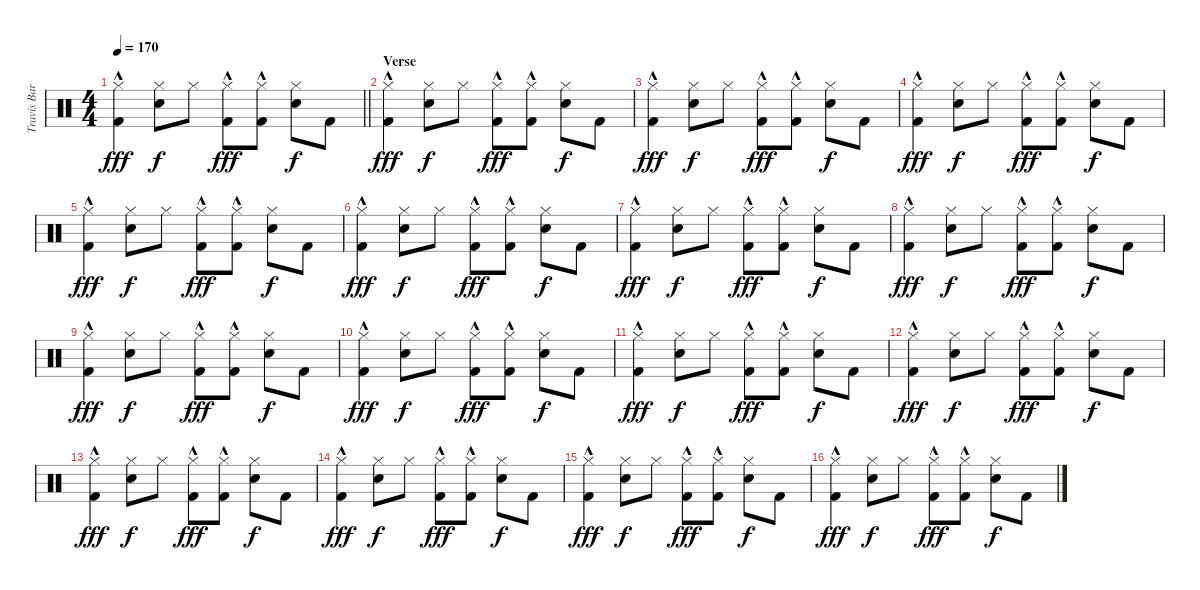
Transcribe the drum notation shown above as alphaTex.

\track ("Travis Barker" "Travis Bar") {instrument percussion}
\staff {score}
\articulation defaults
\ts (4 4)
\tempo 170
\clef neutral
\barLineRight lightlight
\ks c
("Hi-Hat (closed)" "Kick (hit) 2"{hac}).4{dy fff} ("Hi-Hat (closed)" "Snare (hit) 2").8{dy f} "Hi-Hat (closed)".8 ("Hi-Hat (closed)" "Kick (hit) 2"{hac}).8{dy fff} ("Hi-Hat (closed)" "Kick (hit) 2"{hac}).8 ("Hi-Hat (closed)" "Snare (hit) 2").8{dy f} "Kick (hit) 2".8 |
\section ("" "Verse")
("Hi-Hat (closed)" "Kick (hit) 2"{hac}).4{dy fff} ("Hi-Hat (closed)" "Snare (hit) 2").8{dy f} "Hi-Hat (closed)".8 ("Hi-Hat (closed)" "Kick (hit) 2"{hac}).8{dy fff} ("Hi-Hat (closed)" "Kick (hit) 2"{hac}).8 ("Hi-Hat (closed)" "Snare (hit) 2").8{dy f} "Kick (hit) 2".8 |
("Hi-Hat (closed)" "Kick (hit) 2"{hac}).4{dy fff} ("Hi-Hat (closed)" "Snare (hit) 2").8{dy f} "Hi-Hat (closed)".8 ("Hi-Hat (closed)" "Kick (hit) 2"{hac}).8{dy fff} ("Hi-Hat (closed)" "Kick (hit) 2"{hac}).8 ("Hi-Hat (closed)" "Snare (hit) 2").8{dy f} "Kick (hit) 2".8 |
("Hi-Hat (closed)" "Kick (hit) 2"{hac}).4{dy fff} ("Hi-Hat (closed)" "Snare (hit) 2").8{dy f} "Hi-Hat (closed)".8 ("Hi-Hat (closed)" "Kick (hit) 2"{hac}).8{dy fff} ("Hi-Hat (closed)" "Kick (hit) 2"{hac}).8 ("Hi-Hat (closed)" "Snare (hit) 2").8{dy f} "Kick (hit) 2".8 |
("Hi-Hat (closed)" "Kick (hit) 2"{hac}).4{dy fff} ("Hi-Hat (closed)" "Snare (hit) 2").8{dy f} "Hi-Hat (closed)".8 ("Hi-Hat (closed)" "Kick (hit) 2"{hac}).8{dy fff} ("Hi-Hat (closed)" "Kick (hit) 2"{hac}).8 ("Hi-Hat (closed)" "Snare (hit) 2").8{dy f} "Kick (hit) 2".8 |
("Hi-Hat (closed)" "Kick (hit) 2"{hac}).4{dy fff} ("Hi-Hat (closed)" "Snare (hit) 2").8{dy f} "Hi-Hat (closed)".8 ("Hi-Hat (closed)" "Kick (hit) 2"{hac}).8{dy fff} ("Hi-Hat (closed)" "Kick (hit) 2"{hac}).8 ("Hi-Hat (closed)" "Snare (hit) 2").8{dy f} "Kick (hit) 2".8 |
("Hi-Hat (closed)" "Kick (hit) 2"{hac}).4{dy fff} ("Hi-Hat (closed)" "Snare (hit) 2").8{dy f} "Hi-Hat (closed)".8 ("Hi-Hat (closed)" "Kick (hit) 2"{hac}).8{dy fff} ("Hi-Hat (closed)" "Kick (hit) 2"{hac}).8 ("Hi-Hat (closed)" "Snare (hit) 2").8{dy f} "Kick (hit) 2".8 |
("Hi-Hat (closed)" "Kick (hit) 2"{hac}).4{dy fff} ("Hi-Hat (closed)" "Snare (hit) 2").8{dy f} "Hi-Hat (closed)".8 ("Hi-Hat (closed)" "Kick (hit) 2"{hac}).8{dy fff} ("Hi-Hat (closed)" "Kick (hit) 2"{hac}).8 ("Hi-Hat (closed)" "Snare (hit) 2").8{dy f} "Kick (hit) 2".8 |
("Hi-Hat (closed)" "Kick (hit) 2"{hac}).4{dy fff} ("Hi-Hat (closed)" "Snare (hit) 2").8{dy f} "Hi-Hat (closed)".8 ("Hi-Hat (closed)" "Kick (hit) 2"{hac}).8{dy fff} ("Hi-Hat (closed)" "Kick (hit) 2"{hac}).8 ("Hi-Hat (closed)" "Snare (hit) 2").8{dy f} "Kick (hit) 2".8 |
("Hi-Hat (closed)" "Kick (hit) 2"{hac}).4{dy fff} ("Hi-Hat (closed)" "Snare (hit) 2").8{dy f} "Hi-Hat (closed)".8 ("Hi-Hat (closed)" "Kick (hit) 2"{hac}).8{dy fff} ("Hi-Hat (closed)" "Kick (hit) 2"{hac}).8 ("Hi-Hat (closed)" "Snare (hit) 2").8{dy f} "Kick (hit) 2".8 |
("Hi-Hat (closed)" "Kick (hit) 2"{hac}).4{dy fff} ("Hi-Hat (closed)" "Snare (hit) 2").8{dy f} "Hi-Hat (closed)".8 ("Hi-Hat (closed)" "Kick (hit) 2"{hac}).8{dy fff} ("Hi-Hat (closed)" "Kick (hit) 2"{hac}).8 ("Hi-Hat (closed)" "Snare (hit) 2").8{dy f} "Kick (hit) 2".8 |
("Hi-Hat (closed)" "Kick (hit) 2"{hac}).4{dy fff} ("Hi-Hat (closed)" "Snare (hit) 2").8{dy f} "Hi-Hat (closed)".8 ("Hi-Hat (closed)" "Kick (hit) 2"{hac}).8{dy fff} ("Hi-Hat (closed)" "Kick (hit) 2"{hac}).8 ("Hi-Hat (closed)" "Snare (hit) 2").8{dy f} "Kick (hit) 2".8 |
("Hi-Hat (closed)" "Kick (hit) 2"{hac}).4{dy fff} ("Hi-Hat (closed)" "Snare (hit) 2").8{dy f} "Hi-Hat (closed)".8 ("Hi-Hat (closed)" "Kick (hit) 2"{hac}).8{dy fff} ("Hi-Hat (closed)" "Kick (hit) 2"{hac}).8 ("Hi-Hat (closed)" "Snare (hit) 2").8{dy f} "Kick (hit) 2".8 |
("Hi-Hat (closed)" "Kick (hit) 2"{hac}).4{dy fff} ("Hi-Hat (closed)" "Snare (hit) 2").8{dy f} "Hi-Hat (closed)".8 ("Hi-Hat (closed)" "Kick (hit) 2"{hac}).8{dy fff} ("Hi-Hat (closed)" "Kick (hit) 2"{hac}).8 ("Hi-Hat (closed)" "Snare (hit) 2").8{dy f} "Kick (hit) 2".8 |
("Hi-Hat (closed)" "Kick (hit) 2"{hac}).4{dy fff} ("Hi-Hat (closed)" "Snare (hit) 2").8{dy f} "Hi-Hat (closed)".8 ("Hi-Hat (closed)" "Kick (hit) 2"{hac}).8{dy fff} ("Hi-Hat (closed)" "Kick (hit) 2"{hac}).8 ("Hi-Hat (closed)" "Snare (hit) 2").8{dy f} "Kick (hit) 2".8 |
("Hi-Hat (closed)" "Kick (hit) 2"{hac}).4{dy fff} ("Hi-Hat (closed)" "Snare (hit) 2").8{dy f} "Hi-Hat (closed)".8 ("Hi-Hat (closed)" "Kick (hit) 2"{hac}).8{dy fff} ("Hi-Hat (closed)" "Kick (hit) 2"{hac}).8 ("Hi-Hat (closed)" "Snare (hit) 2").8{dy f} "Kick (hit) 2".8
